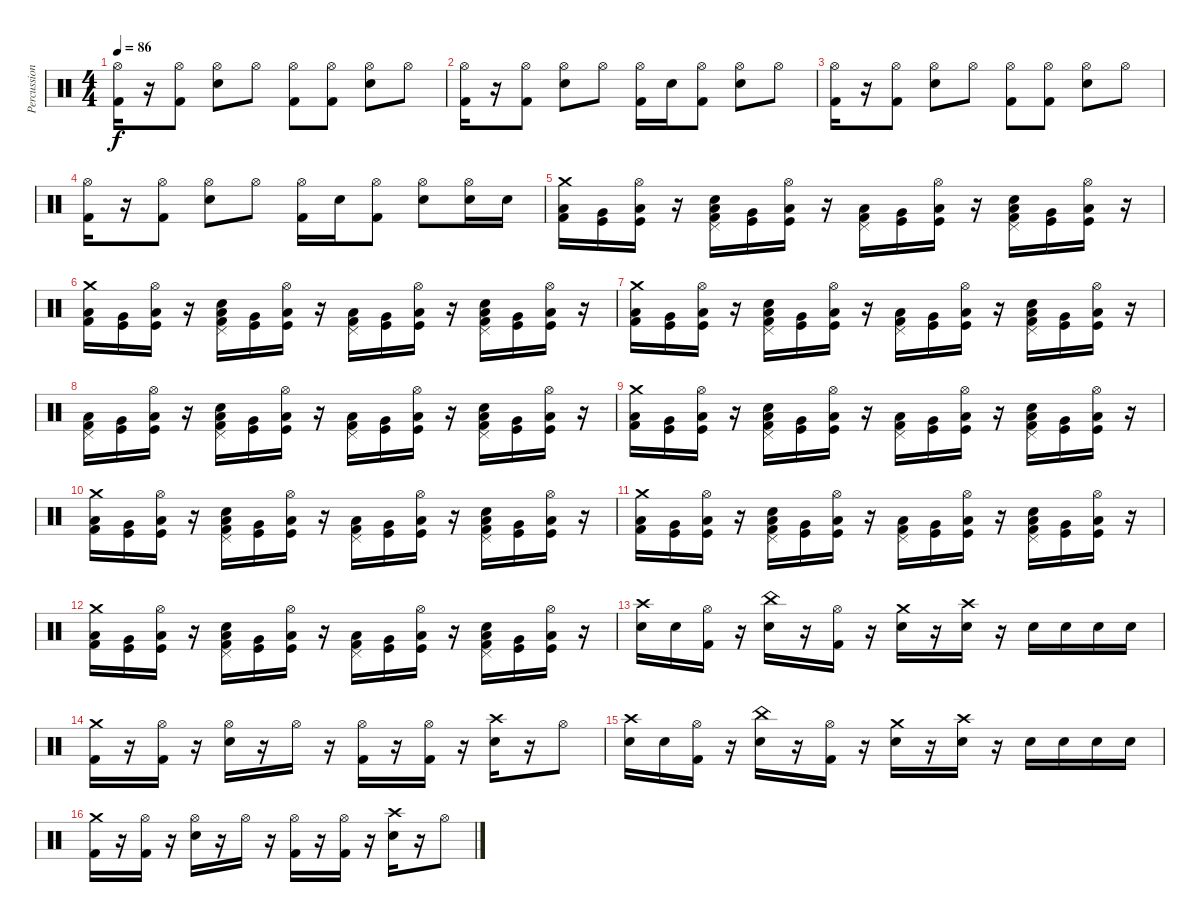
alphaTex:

\track ("Percussions" "Percussion") {instrument percussion}
\staff {score}
\articulation defaults
\ts (4 4)
\tempo 86
\clef neutral
\ks c
("Kick (hit) 2" "Hi-Hat (open)").16{dy f} r.16 ("Kick (hit) 2" "Hi-Hat (open)").8 ("Snare (hit) 2" "Hi-Hat (open)").8 "Hi-Hat (open)".8 ("Kick (hit) 2" "Hi-Hat (open)").8 ("Kick (hit) 2" "Hi-Hat (open)").8 ("Snare (hit) 2" "Hi-Hat (open)").8 "Hi-Hat (open)".8 |
("Kick (hit) 2" "Hi-Hat (open)").16 r.16 ("Kick (hit) 2" "Hi-Hat (open)").8 ("Snare (hit) 2" "Hi-Hat (open)").8 "Hi-Hat (open)".8 ("Kick (hit) 2" "Hi-Hat (open)").16 "Snare (hit) 2".16 ("Kick (hit) 2" "Hi-Hat (open)").8 ("Snare (hit) 2" "Hi-Hat (open)").8 "Hi-Hat (open)".8 |
("Kick (hit) 2" "Hi-Hat (open)").16 r.16 ("Kick (hit) 2" "Hi-Hat (open)").8 ("Snare (hit) 2" "Hi-Hat (open)").8 "Hi-Hat (open)".8 ("Kick (hit) 2" "Hi-Hat (open)").8 ("Kick (hit) 2" "Hi-Hat (open)").8 ("Snare (hit) 2" "Hi-Hat (open)").8 "Hi-Hat (open)".8 |
("Kick (hit) 2" "Hi-Hat (open)").16 r.16 ("Kick (hit) 2" "Hi-Hat (open)").8 ("Snare (hit) 2" "Hi-Hat (open)").8 "Hi-Hat (open)".8 ("Kick (hit) 2" "Hi-Hat (open)").16 "Snare (hit) 2".16 ("Kick (hit) 2" "Hi-Hat (open)").8 ("Snare (hit) 2" "Hi-Hat (open)").8 ("Snare (hit) 2" "Hi-Hat (open)").16 "Snare (hit) 2".16 |
("Kick (hit) 2" "Crash medium (hit)" "Low Tom (hit)").16 ("Very Low Tom (hit)" "Kick (hit)").16 ("Hi-Hat (open)" "Low Floor Tom (hit)" "Kick (hit)").16 r.16 ("Kick (hit) 2" "Pedal Hi-Hat (hit)" "Snare (hit) 2" "Low Tom (hit)").16 ("Kick (hit)" "Very Low Tom (hit)").16 ("Hi-Hat (open)" "Kick (hit)" "Low Floor Tom (hit)").16 r.16 ("Pedal Hi-Hat (hit)" "Kick (hit) 2" "Low Tom (hit)").16 ("Kick (hit)" "Very Low Tom (hit)").16 ("Hi-Hat (open)" "Kick (hit)" "Low Floor Tom (hit)").16 r.16 ("Kick (hit) 2" "Pedal Hi-Hat (hit)" "Snare (hit) 2" "Low Tom (hit)").16 ("Kick (hit)" "Very Low Tom (hit)").16 ("Hi-Hat (open)" "Kick (hit)" "Low Floor Tom (hit)").16 r.16 |
("Kick (hit) 2" "Crash medium (hit)" "Low Tom (hit)").16 ("Very Low Tom (hit)" "Kick (hit)").16 ("Hi-Hat (open)" "Low Floor Tom (hit)" "Kick (hit)").16 r.16 ("Kick (hit) 2" "Pedal Hi-Hat (hit)" "Snare (hit) 2" "Low Tom (hit)").16 ("Kick (hit)" "Very Low Tom (hit)").16 ("Hi-Hat (open)" "Kick (hit)" "Low Floor Tom (hit)").16 r.16 ("Pedal Hi-Hat (hit)" "Kick (hit) 2" "Low Tom (hit)").16 ("Kick (hit)" "Very Low Tom (hit)").16 ("Hi-Hat (open)" "Kick (hit)" "Low Floor Tom (hit)").16 r.16 ("Kick (hit) 2" "Pedal Hi-Hat (hit)" "Snare (hit) 2" "Low Tom (hit)").16 ("Kick (hit)" "Very Low Tom (hit)").16 ("Hi-Hat (open)" "Kick (hit)" "Low Floor Tom (hit)").16 r.16 |
("Kick (hit) 2" "Crash medium (hit)" "Low Tom (hit)").16 ("Very Low Tom (hit)" "Kick (hit)").16 ("Hi-Hat (open)" "Low Floor Tom (hit)" "Kick (hit)").16 r.16 ("Kick (hit) 2" "Pedal Hi-Hat (hit)" "Snare (hit) 2" "Low Tom (hit)").16 ("Kick (hit)" "Very Low Tom (hit)").16 ("Hi-Hat (open)" "Kick (hit)" "Low Floor Tom (hit)").16 r.16 ("Pedal Hi-Hat (hit)" "Kick (hit) 2" "Low Tom (hit)").16 ("Kick (hit)" "Very Low Tom (hit)").16 ("Hi-Hat (open)" "Kick (hit)" "Low Floor Tom (hit)").16 r.16 ("Kick (hit) 2" "Pedal Hi-Hat (hit)" "Snare (hit) 2" "Low Tom (hit)").16 ("Kick (hit)" "Very Low Tom (hit)").16 ("Hi-Hat (open)" "Kick (hit)" "Low Floor Tom (hit)").16 r.16 |
("Kick (hit) 2" "Pedal Hi-Hat (hit)" "Low Tom (hit)").16 ("Kick (hit)" "Very Low Tom (hit)").16 ("Hi-Hat (open)" "Kick (hit)" "Low Floor Tom (hit)").16 r.16 ("Kick (hit) 2" "Pedal Hi-Hat (hit)" "Snare (hit) 2" "Low Tom (hit)").16 ("Kick (hit)" "Very Low Tom (hit)").16 ("Hi-Hat (open)" "Kick (hit)" "Low Floor Tom (hit)").16 r.16 ("Pedal Hi-Hat (hit)" "Kick (hit) 2" "Low Tom (hit)").16 ("Kick (hit)" "Very Low Tom (hit)").16 ("Hi-Hat (open)" "Kick (hit)" "Low Floor Tom (hit)").16 r.16 ("Kick (hit) 2" "Pedal Hi-Hat (hit)" "Snare (hit) 2" "Low Tom (hit)").16 ("Kick (hit)" "Very Low Tom (hit)").16 ("Hi-Hat (open)" "Kick (hit)" "Low Floor Tom (hit)").16 r.16 |
("Kick (hit) 2" "Crash medium (hit)" "Low Tom (hit)").16 ("Kick (hit)" "Very Low Tom (hit)").16 ("Hi-Hat (open)" "Kick (hit)" "Low Floor Tom (hit)").16 r.16 ("Kick (hit) 2" "Pedal Hi-Hat (hit)" "Snare (hit) 2" "Low Tom (hit)").16 ("Kick (hit)" "Very Low Tom (hit)").16 ("Hi-Hat (open)" "Kick (hit)" "Low Floor Tom (hit)").16 r.16 ("Pedal Hi-Hat (hit)" "Kick (hit) 2" "Low Tom (hit)").16 ("Kick (hit)" "Very Low Tom (hit)").16 ("Hi-Hat (open)" "Kick (hit)" "Low Floor Tom (hit)").16 r.16 ("Kick (hit) 2" "Pedal Hi-Hat (hit)" "Snare (hit) 2" "Low Tom (hit)").16 ("Kick (hit)" "Very Low Tom (hit)").16 ("Hi-Hat (open)" "Kick (hit)" "Low Floor Tom (hit)").16 r.16 |
("Kick (hit) 2" "Crash medium (hit)" "Low Tom (hit)").16 ("Kick (hit)" "Very Low Tom (hit)").16 ("Hi-Hat (open)" "Kick (hit)" "Low Floor Tom (hit)").16 r.16 ("Kick (hit) 2" "Pedal Hi-Hat (hit)" "Snare (hit) 2" "Low Tom (hit)").16 ("Kick (hit)" "Very Low Tom (hit)").16 ("Hi-Hat (open)" "Kick (hit)" "Low Floor Tom (hit)").16 r.16 ("Pedal Hi-Hat (hit)" "Kick (hit) 2" "Low Tom (hit)").16 ("Kick (hit)" "Very Low Tom (hit)").16 ("Hi-Hat (open)" "Kick (hit)" "Low Floor Tom (hit)").16 r.16 ("Kick (hit) 2" "Pedal Hi-Hat (hit)" "Snare (hit) 2" "Low Tom (hit)").16 ("Kick (hit)" "Very Low Tom (hit)").16 ("Hi-Hat (open)" "Kick (hit)" "Low Floor Tom (hit)").16 r.16 |
("Kick (hit) 2" "Crash medium (hit)" "Low Tom (hit)").16 ("Kick (hit)" "Very Low Tom (hit)").16 ("Hi-Hat (open)" "Kick (hit)" "Low Floor Tom (hit)").16 r.16 ("Kick (hit) 2" "Pedal Hi-Hat (hit)" "Snare (hit) 2" "Low Tom (hit)").16 ("Kick (hit)" "Very Low Tom (hit)").16 ("Hi-Hat (open)" "Kick (hit)" "Low Floor Tom (hit)").16 r.16 ("Pedal Hi-Hat (hit)" "Kick (hit) 2" "Low Tom (hit)").16 ("Kick (hit)" "Very Low Tom (hit)").16 ("Hi-Hat (open)" "Kick (hit)" "Low Floor Tom (hit)").16 r.16 ("Kick (hit) 2" "Pedal Hi-Hat (hit)" "Snare (hit) 2" "Low Tom (hit)").16 ("Kick (hit)" "Very Low Tom (hit)").16 ("Hi-Hat (open)" "Kick (hit)" "Low Floor Tom (hit)").16 r.16 |
("Kick (hit) 2" "Crash medium (hit)" "Low Tom (hit)").16 ("Kick (hit)" "Very Low Tom (hit)").16 ("Hi-Hat (open)" "Kick (hit)" "Low Floor Tom (hit)").16 r.16 ("Kick (hit) 2" "Pedal Hi-Hat (hit)" "Snare (hit) 2" "Low Tom (hit)").16 ("Kick (hit)" "Very Low Tom (hit)").16 ("Hi-Hat (open)" "Kick (hit)" "Low Floor Tom (hit)").16 r.16 ("Pedal Hi-Hat (hit)" "Kick (hit) 2" "Low Tom (hit)").16 ("Kick (hit)" "Very Low Tom (hit)").16 ("Hi-Hat (open)" "Kick (hit)" "Low Floor Tom (hit)").16 r.16 ("Kick (hit) 2" "Pedal Hi-Hat (hit)" "Snare (hit) 2" "Low Tom (hit)").16 ("Kick (hit)" "Very Low Tom (hit)").16 ("Hi-Hat (open)" "Kick (hit)" "Low Floor Tom (hit)").16 r.16 |
("Snare (hit) 2" "Crash high (hit)").16 "Snare (hit) 2".16 ("Hi-Hat (open)" "Kick (hit) 2").16 r.16 ("China (hit)" "Snare (hit) 2").16 r.16 ("Hi-Hat (open)" "Kick (hit) 2").16 r.16 ("Crash medium (hit)" "Snare (hit) 2").16 r.16 ("Crash high (hit)" "Snare (hit) 2").16 r.16 "Snare (hit) 2".16 "Snare (hit) 2".16 "Snare (hit) 2".16 "Snare (hit) 2".16 |
("Kick (hit) 2" "Crash medium (hit)").16 r.16 ("Hi-Hat (open)" "Kick (hit) 2").16 r.16 ("Hi-Hat (open)" "Snare (hit) 2").16 r.16 "Hi-Hat (open)".16 r.16 ("Hi-Hat (open)" "Kick (hit) 2").16 r.16 ("Hi-Hat (open)" "Kick (hit) 2").16 r.16 ("Crash high (hit)" "Snare (hit) 2").16 r.16 "Hi-Hat (open)".8 |
("Snare (hit) 2" "Crash high (hit)").16 "Snare (hit) 2".16 ("Hi-Hat (open)" "Kick (hit) 2").16 r.16 ("China (hit)" "Snare (hit) 2").16 r.16 ("Hi-Hat (open)" "Kick (hit) 2").16 r.16 ("Crash medium (hit)" "Snare (hit) 2").16 r.16 ("Crash high (hit)" "Snare (hit) 2").16 r.16 "Snare (hit) 2".16 "Snare (hit) 2".16 "Snare (hit) 2".16 "Snare (hit) 2".16 |
("Kick (hit) 2" "Crash medium (hit)").16 r.16 ("Hi-Hat (open)" "Kick (hit) 2").16 r.16 ("Hi-Hat (open)" "Snare (hit) 2").16 r.16 "Hi-Hat (open)".16 r.16 ("Hi-Hat (open)" "Kick (hit) 2").16 r.16 ("Hi-Hat (open)" "Kick (hit) 2").16 r.16 ("Crash high (hit)" "Snare (hit) 2").16 r.16 "Hi-Hat (open)".8
